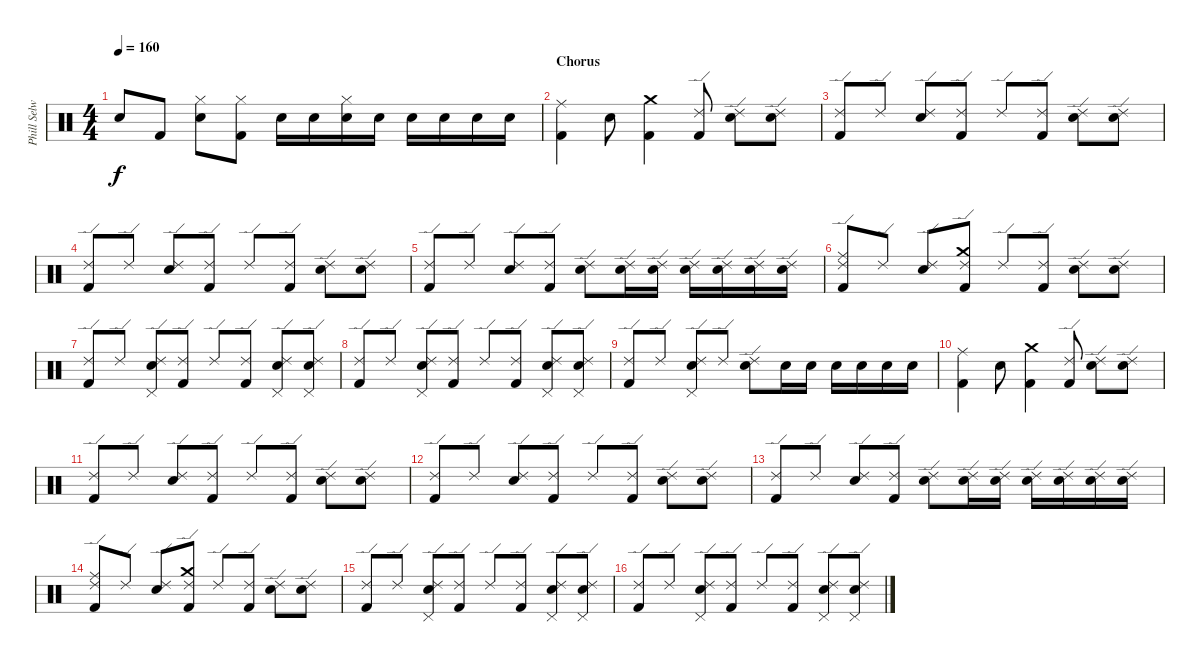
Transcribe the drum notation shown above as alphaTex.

\track ("Phill Selway" "Phill Selw") {instrument percussion}
\staff {score}
\articulation defaults
\ts (4 4)
\tempo 160
\clef neutral
\ks c "Snare (hit) 2".8{dy f} "Kick (hit) 2".8
("Snare (hit) 2" "Hi-Hat (closed)").8 ("Kick (hit) 2" "Hi-Hat (closed)").8 "Snare (hit) 2".16 "Snare (hit) 2".16 ("Snare (hit) 2" "Hi-Hat (closed)").16 "Snare (hit) 2".16 "Snare (hit) 2".16 "Snare (hit) 2".16 "Snare (hit) 2".16 "Snare (hit) 2".16 |
\section ("" "Chorus")
("Ride (middle)" "Kick (hit) 2").4 "Snare (hit) 2".8 ("Crash medium (hit)" "Kick (hit) 2").4 ("Kick (hit) 2" "Ride (edge) 2").8 ("Snare (hit) 2" "Ride (edge) 2").8 ("Snare (hit) 2" "Ride (edge) 2").8 |
("Kick (hit) 2" "Ride (edge) 2").8 "Ride (edge) 2".8 ("Snare (hit) 2" "Ride (edge) 2").8 ("Kick (hit) 2" "Ride (edge) 2").8 "Ride (edge) 2".8 ("Kick (hit) 2" "Ride (edge) 2").8 ("Snare (hit) 2" "Ride (edge) 2").8 ("Snare (hit) 2" "Ride (edge) 2").8 |
("Kick (hit) 2" "Ride (edge) 2").8 "Ride (edge) 2".8 ("Snare (hit) 2" "Ride (edge) 2").8 ("Kick (hit) 2" "Ride (edge) 2").8 "Ride (edge) 2".8 ("Kick (hit) 2" "Ride (edge) 2").8 ("Snare (hit) 2" "Ride (edge) 2").8 ("Snare (hit) 2" "Ride (edge) 2").8 |
("Kick (hit) 2" "Ride (edge) 2").8 "Ride (edge) 2".8 ("Snare (hit) 2" "Ride (edge) 2").8 ("Kick (hit) 2" "Ride (edge) 2").8 ("Snare (hit) 2" "Ride (edge) 2").8 ("Snare (hit) 2" "Ride (edge) 2").16 ("Snare (hit) 2" "Ride (edge) 2").16 ("Snare (hit) 2" "Ride (edge) 2").16 ("Snare (hit) 2" "Ride (edge) 2").16 ("Snare (hit) 2" "Ride (edge) 2").16 ("Snare (hit) 2" "Ride (edge) 2").16 |
("Kick (hit) 2" "Ride (middle)" "Ride (edge) 2").8 "Ride (edge) 2".8 ("Snare (hit) 2" "Ride (edge) 2").8 ("Kick (hit) 2" "Crash medium (hit)" "Ride (edge) 2").8 "Ride (edge) 2".8 ("Kick (hit) 2" "Ride (edge) 2").8 ("Snare (hit) 2" "Ride (edge) 2").8 ("Snare (hit) 2" "Ride (edge) 2").8 |
("Kick (hit) 2" "Ride (edge) 2").8 "Ride (edge) 2".8 ("Snare (hit) 2" "Pedal Hi-Hat (hit)" "Ride (edge) 2").8 ("Kick (hit) 2" "Ride (edge) 2").8 "Ride (edge) 2".8 ("Kick (hit) 2" "Ride (edge) 2").8 ("Snare (hit) 2" "Pedal Hi-Hat (hit)" "Ride (edge) 2").8 ("Snare (hit) 2" "Pedal Hi-Hat (hit)" "Ride (edge) 2").8 |
("Kick (hit) 2" "Ride (edge) 2").8 "Ride (edge) 2".8 ("Snare (hit) 2" "Pedal Hi-Hat (hit)" "Ride (edge) 2").8 ("Kick (hit) 2" "Ride (edge) 2").8 "Ride (edge) 2".8 ("Kick (hit) 2" "Ride (edge) 2").8 ("Snare (hit) 2" "Pedal Hi-Hat (hit)" "Ride (edge) 2").8 ("Snare (hit) 2" "Pedal Hi-Hat (hit)" "Ride (edge) 2").8 |
("Kick (hit) 2" "Ride (edge) 2").8 "Ride (edge) 2".8 ("Snare (hit) 2" "Pedal Hi-Hat (hit)" "Ride (edge) 2").8 "Ride (edge) 2".8 ("Snare (hit) 2" "Ride (edge) 2").8 "Snare (hit) 2".16 "Snare (hit) 2".16 "Snare (hit) 2".16 "Snare (hit) 2".16 "Snare (hit) 2".16 "Snare (hit) 2".16 |
("Ride (middle)" "Kick (hit) 2").4 "Snare (hit) 2".8 ("Crash medium (hit)" "Kick (hit) 2").4 ("Kick (hit) 2" "Ride (edge) 2").8 ("Snare (hit) 2" "Ride (edge) 2").8 ("Snare (hit) 2" "Ride (edge) 2").8 |
("Kick (hit) 2" "Ride (edge) 2").8 "Ride (edge) 2".8 ("Snare (hit) 2" "Ride (edge) 2").8 ("Kick (hit) 2" "Ride (edge) 2").8 "Ride (edge) 2".8 ("Kick (hit) 2" "Ride (edge) 2").8 ("Snare (hit) 2" "Ride (edge) 2").8 ("Snare (hit) 2" "Ride (edge) 2").8 |
("Kick (hit) 2" "Ride (edge) 2").8 "Ride (edge) 2".8 ("Snare (hit) 2" "Ride (edge) 2").8 ("Kick (hit) 2" "Ride (edge) 2").8 "Ride (edge) 2".8 ("Kick (hit) 2" "Ride (edge) 2").8 ("Snare (hit) 2" "Ride (edge) 2").8 ("Snare (hit) 2" "Ride (edge) 2").8 |
("Kick (hit) 2" "Ride (edge) 2").8 "Ride (edge) 2".8 ("Snare (hit) 2" "Ride (edge) 2").8 ("Kick (hit) 2" "Ride (edge) 2").8 ("Snare (hit) 2" "Ride (edge) 2").8 ("Snare (hit) 2" "Ride (edge) 2").16 ("Snare (hit) 2" "Ride (edge) 2").16 ("Snare (hit) 2" "Ride (edge) 2").16 ("Snare (hit) 2" "Ride (edge) 2").16 ("Snare (hit) 2" "Ride (edge) 2").16 ("Snare (hit) 2" "Ride (edge) 2").16 |
("Kick (hit) 2" "Ride (middle)" "Ride (edge) 2").8 "Ride (edge) 2".8 ("Snare (hit) 2" "Ride (edge) 2").8 ("Kick (hit) 2" "Crash medium (hit)" "Ride (edge) 2").8 "Ride (edge) 2".8 ("Kick (hit) 2" "Ride (edge) 2").8 ("Snare (hit) 2" "Ride (edge) 2").8 ("Snare (hit) 2" "Ride (edge) 2").8 |
("Kick (hit) 2" "Ride (edge) 2").8 "Ride (edge) 2".8 ("Snare (hit) 2" "Pedal Hi-Hat (hit)" "Ride (edge) 2").8 ("Kick (hit) 2" "Ride (edge) 2").8 "Ride (edge) 2".8 ("Kick (hit) 2" "Ride (edge) 2").8 ("Snare (hit) 2" "Pedal Hi-Hat (hit)" "Ride (edge) 2").8 ("Snare (hit) 2" "Pedal Hi-Hat (hit)" "Ride (edge) 2").8 |
("Kick (hit) 2" "Ride (edge) 2").8 "Ride (edge) 2".8 ("Snare (hit) 2" "Pedal Hi-Hat (hit)" "Ride (edge) 2").8 ("Kick (hit) 2" "Ride (edge) 2").8 "Ride (edge) 2".8 ("Kick (hit) 2" "Ride (edge) 2").8 ("Snare (hit) 2" "Pedal Hi-Hat (hit)" "Ride (edge) 2").8 ("Snare (hit) 2" "Pedal Hi-Hat (hit)" "Ride (edge) 2").8
